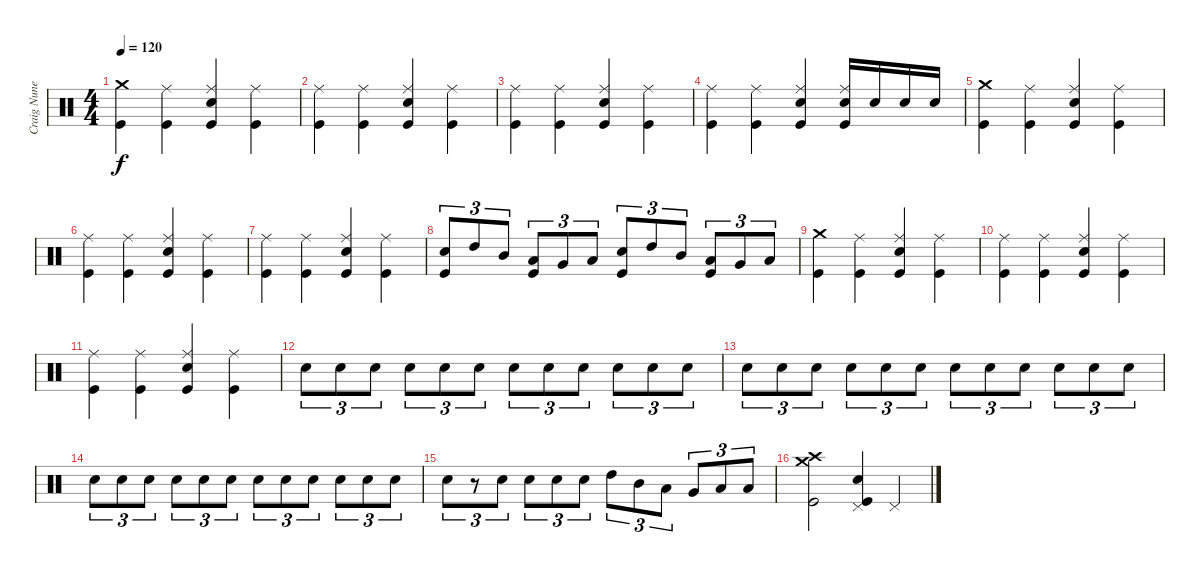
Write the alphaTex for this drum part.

\track ("Craig Nunenmacher" "Craig Nune") {instrument percussion}
\staff {score}
\articulation defaults
\ts (4 4)
\tempo 120
\clef neutral
\ks c
("Crash medium (hit)" "Kick (hit)").4{dy f} ("Ride (middle)" "Kick (hit)").4 ("Ride (middle)" "Snare (hit) 2" "Kick (hit)").4 ("Ride (middle)" "Kick (hit)").4 |
("Ride (middle)" "Kick (hit)").4 ("Ride (middle)" "Kick (hit)").4 ("Ride (middle)" "Snare (hit) 2" "Kick (hit)").4 ("Ride (middle)" "Kick (hit)").4 |
("Ride (middle)" "Kick (hit)").4 ("Ride (middle)" "Kick (hit)").4 ("Ride (middle)" "Snare (hit) 2" "Kick (hit)").4 ("Ride (middle)" "Kick (hit)").4 |
("Ride (middle)" "Kick (hit)").4 ("Ride (middle)" "Kick (hit)").4 ("Ride (middle)" "Snare (hit) 2" "Kick (hit)").4 ("Ride (middle)" "Snare (hit) 2" "Kick (hit)").16 "Snare (hit) 2".16 "Snare (hit) 2".16 "Snare (hit) 2".16 |
("Crash medium (hit)" "Kick (hit)").4 ("Ride (middle)" "Kick (hit)").4 ("Ride (middle)" "Snare (hit) 2" "Kick (hit)").4 ("Ride (middle)" "Kick (hit)").4 |
("Ride (middle)" "Kick (hit)").4 ("Ride (middle)" "Kick (hit)").4 ("Ride (middle)" "Snare (hit) 2" "Kick (hit)").4 ("Ride (middle)" "Kick (hit)").4 |
("Ride (middle)" "Kick (hit)").4 ("Ride (middle)" "Kick (hit)").4 ("Ride (middle)" "Snare (hit) 2" "Kick (hit)").4 ("Ride (middle)" "Kick (hit)").4 |
("Snare (hit) 2" "Kick (hit)").8{tu (3 2)} "High Tom (hit)".8{tu (3 2)} "Mid Tom (hit)".8{tu (3 2)} ("Low Tom (hit)" "Kick (hit)").8{tu (3 2)} "Very Low Tom (hit)".8{tu (3 2)} "Low Floor Tom (hit)".8{tu (3 2)} ("Snare (hit) 2" "Kick (hit)").8{tu (3 2)} "High Tom (hit)".8{tu (3 2)} "Mid Tom (hit)".8{tu (3 2)} ("Low Tom (hit)" "Kick (hit)").8{tu (3 2)} "Very Low Tom (hit)".8{tu (3 2)} "Low Floor Tom (hit)".8{tu (3 2)} |
("Crash medium (hit)" "Kick (hit)").4 ("Ride (middle)" "Kick (hit)").4 ("Ride (middle)" "Snare (hit) 2" "Kick (hit)").4 ("Ride (middle)" "Kick (hit)").4 |
("Ride (middle)" "Kick (hit)").4 ("Ride (middle)" "Kick (hit)").4 ("Ride (middle)" "Snare (hit) 2" "Kick (hit)").4 ("Ride (middle)" "Kick (hit)").4 |
("Ride (middle)" "Kick (hit)").4 ("Ride (middle)" "Kick (hit)").4 ("Ride (middle)" "Snare (hit) 2" "Kick (hit)").4 ("Ride (middle)" "Kick (hit)").4 |
"Snare (hit) 2".8{tu (3 2) volume 4} "Snare (hit) 2".8{tu (3 2)} "Snare (hit) 2".8{tu (3 2)} "Snare (hit) 2".8{tu (3 2)} "Snare (hit) 2".8{tu (3 2)} "Snare (hit) 2".8{tu (3 2)} "Snare (hit) 2".8{tu (3 2)} "Snare (hit) 2".8{tu (3 2)} "Snare (hit) 2".8{tu (3 2)} "Snare (hit) 2".8{tu (3 2)} "Snare (hit) 2".8{tu (3 2)} "Snare (hit) 2".8{tu (3 2)} |
"Snare (hit) 2".8{tu (3 2) volume 6} "Snare (hit) 2".8{tu (3 2)} "Snare (hit) 2".8{tu (3 2)} "Snare (hit) 2".8{tu (3 2)} "Snare (hit) 2".8{tu (3 2)} "Snare (hit) 2".8{tu (3 2)} "Snare (hit) 2".8{tu (3 2)} "Snare (hit) 2".8{tu (3 2)} "Snare (hit) 2".8{tu (3 2)} "Snare (hit) 2".8{tu (3 2)} "Snare (hit) 2".8{tu (3 2)} "Snare (hit) 2".8{tu (3 2)} |
"Snare (hit) 2".8{tu (3 2) volume 10} "Snare (hit) 2".8{tu (3 2)} "Snare (hit) 2".8{tu (3 2)} "Snare (hit) 2".8{tu (3 2)} "Snare (hit) 2".8{tu (3 2)} "Snare (hit) 2".8{tu (3 2)} "Snare (hit) 2".8{tu (3 2)} "Snare (hit) 2".8{tu (3 2)} "Snare (hit) 2".8{tu (3 2)} "Snare (hit) 2".8{tu (3 2)} "Snare (hit) 2".8{tu (3 2)} "Snare (hit) 2".8{tu (3 2)} |
"Snare (hit) 2".8{tu (3 2)} r.8{tu (3 2)} "Snare (hit) 2".8{tu (3 2)} "Snare (hit) 2".8{tu (3 2)} "Snare (hit) 2".8{tu (3 2)} "Snare (hit) 2".8{tu (3 2)} "High Tom (hit)".8{tu (3 2)} "Mid Tom (hit)".8{tu (3 2)} "Low Tom (hit)".8{tu (3 2)} "Very Low Tom (hit)".8{tu (3 2)} "Low Floor Tom (hit)".8{tu (3 2)} "Low Floor Tom (hit)".8{tu (3 2)} |
("Crash high (hit)" "Crash medium (hit)" "Kick (hit)").2 ("Pedal Hi-Hat (hit)" "Snare (hit) 2" "Kick (hit)").4 "Pedal Hi-Hat (hit)".4
